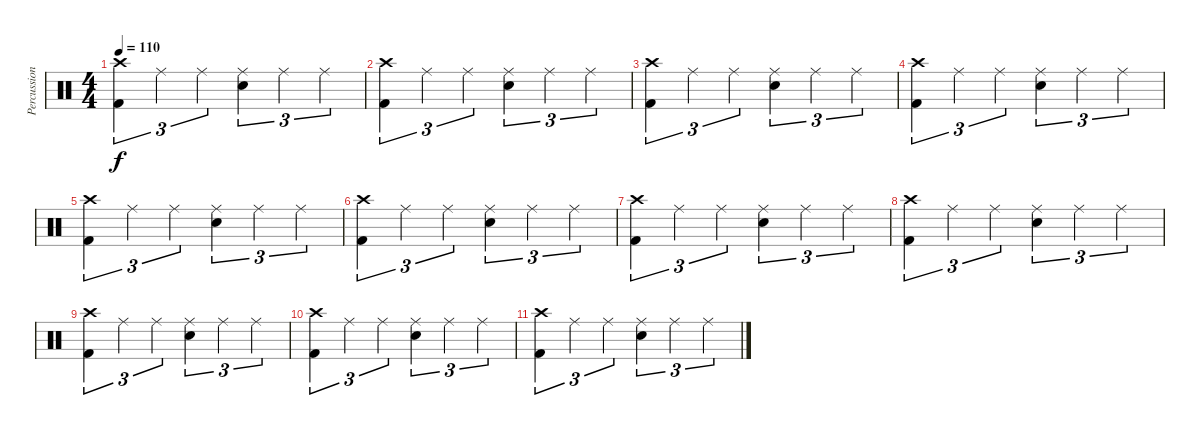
\track ("Percussion" "Percussion") {instrument percussion}
\staff {score}
\articulation defaults
\ts (4 4)
\tempo 110
\clef neutral
\ks c
("Crash high (hit)" "Kick (hit) 2").4{tu (3 2) dy f} "Ride (middle)".4{tu (3 2)} "Ride (middle)".4{tu (3 2)} ("Electric Snare (hit)" "Ride (middle)").4{tu (3 2)} "Ride (middle)".4{tu (3 2)} "Ride (middle)".4{tu (3 2)} |
("Crash high (hit)" "Kick (hit) 2").4{tu (3 2)} "Ride (middle)".4{tu (3 2)} "Ride (middle)".4{tu (3 2)} ("Electric Snare (hit)" "Ride (middle)").4{tu (3 2)} "Ride (middle)".4{tu (3 2)} "Ride (middle)".4{tu (3 2)} |
("Crash high (hit)" "Kick (hit) 2").4{tu (3 2)} "Ride (middle)".4{tu (3 2)} "Ride (middle)".4{tu (3 2)} ("Electric Snare (hit)" "Ride (middle)").4{tu (3 2)} "Ride (middle)".4{tu (3 2)} "Ride (middle)".4{tu (3 2)} |
("Crash high (hit)" "Kick (hit) 2").4{tu (3 2)} "Ride (middle)".4{tu (3 2)} "Ride (middle)".4{tu (3 2)} ("Electric Snare (hit)" "Ride (middle)").4{tu (3 2)} "Ride (middle)".4{tu (3 2)} "Ride (middle)".4{tu (3 2)} |
("Crash high (hit)" "Kick (hit) 2").4{tu (3 2)} "Ride (middle)".4{tu (3 2)} "Ride (middle)".4{tu (3 2)} ("Electric Snare (hit)" "Ride (middle)").4{tu (3 2)} "Ride (middle)".4{tu (3 2)} "Ride (middle)".4{tu (3 2)} |
("Crash high (hit)" "Kick (hit) 2").4{tu (3 2)} "Ride (middle)".4{tu (3 2)} "Ride (middle)".4{tu (3 2)} ("Electric Snare (hit)" "Ride (middle)").4{tu (3 2)} "Ride (middle)".4{tu (3 2)} "Ride (middle)".4{tu (3 2)} |
("Crash high (hit)" "Kick (hit) 2").4{tu (3 2)} "Ride (middle)".4{tu (3 2)} "Ride (middle)".4{tu (3 2)} ("Electric Snare (hit)" "Ride (middle)").4{tu (3 2)} "Ride (middle)".4{tu (3 2)} "Ride (middle)".4{tu (3 2)} |
("Crash high (hit)" "Kick (hit) 2").4{tu (3 2)} "Ride (middle)".4{tu (3 2)} "Ride (middle)".4{tu (3 2)} ("Electric Snare (hit)" "Ride (middle)").4{tu (3 2)} "Ride (middle)".4{tu (3 2)} "Ride (middle)".4{tu (3 2)} |
("Crash high (hit)" "Kick (hit) 2").4{tu (3 2)} "Ride (middle)".4{tu (3 2)} "Ride (middle)".4{tu (3 2)} ("Electric Snare (hit)" "Ride (middle)").4{tu (3 2)} "Ride (middle)".4{tu (3 2)} "Ride (middle)".4{tu (3 2)} |
("Crash high (hit)" "Kick (hit) 2").4{tu (3 2)} "Ride (middle)".4{tu (3 2)} "Ride (middle)".4{tu (3 2)} ("Electric Snare (hit)" "Ride (middle)").4{tu (3 2)} "Ride (middle)".4{tu (3 2)} "Ride (middle)".4{tu (3 2)} |
("Crash high (hit)" "Kick (hit) 2").4{tu (3 2)} "Ride (middle)".4{tu (3 2)} "Ride (middle)".4{tu (3 2)} ("Electric Snare (hit)" "Ride (middle)").4{tu (3 2)} "Ride (middle)".4{tu (3 2)} "Ride (middle)".4{tu (3 2)}
